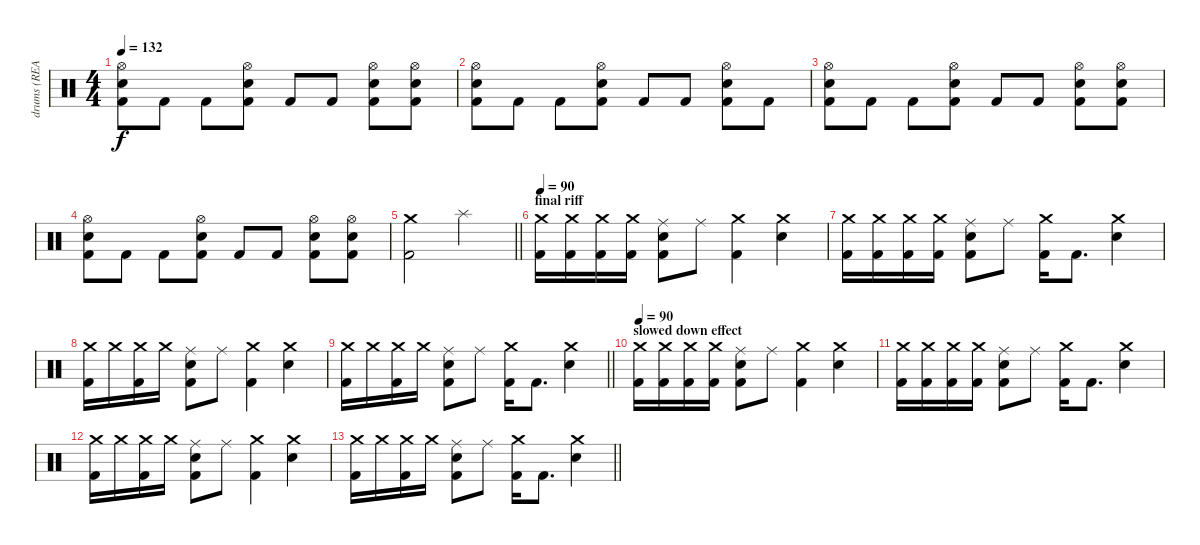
\track ("drums (REAL simple)" "drums (REA") {instrument percussion}
\staff {score}
\articulation defaults
\ts (4 4)
\tempo 132
\clef neutral
\ks c
("Hi-Hat (open)" "Electric Snare (hit)" "Kick (hit) 2").8{dy f} "Kick (hit) 2".8 "Kick (hit) 2".8 ("Hi-Hat (open)" "Electric Snare (hit)" "Kick (hit) 2").8 "Kick (hit) 2".8 "Kick (hit) 2".8 ("Hi-Hat (open)" "Electric Snare (hit)" "Kick (hit) 2").8 ("Hi-Hat (open)" "Electric Snare (hit)" "Kick (hit) 2").8 |
("Hi-Hat (open)" "Electric Snare (hit)" "Kick (hit) 2").8 "Kick (hit) 2".8 "Kick (hit) 2".8 ("Hi-Hat (open)" "Electric Snare (hit)" "Kick (hit) 2").8 "Kick (hit) 2".8 "Kick (hit) 2".8 ("Hi-Hat (open)" "Electric Snare (hit)" "Kick (hit) 2").8 "Kick (hit) 2".8 |
("Hi-Hat (open)" "Electric Snare (hit)" "Kick (hit) 2").8 "Kick (hit) 2".8 "Kick (hit) 2".8 ("Hi-Hat (open)" "Electric Snare (hit)" "Kick (hit) 2").8 "Kick (hit) 2".8 "Kick (hit) 2".8 ("Hi-Hat (open)" "Electric Snare (hit)" "Kick (hit) 2").8 ("Hi-Hat (open)" "Electric Snare (hit)" "Kick (hit) 2").8 |
("Hi-Hat (open)" "Electric Snare (hit)" "Kick (hit) 2").8 "Kick (hit) 2".8 "Kick (hit) 2".8 ("Hi-Hat (open)" "Electric Snare (hit)" "Kick (hit) 2").8 "Kick (hit) 2".8 "Kick (hit) 2".8 ("Hi-Hat (open)" "Electric Snare (hit)" "Kick (hit) 2").8 ("Hi-Hat (open)" "Electric Snare (hit)" "Kick (hit) 2").8 |
\barLineRight lightlight
("Crash medium (hit)" "Kick (hit) 2").2 "Splash (hit)".2 |
\section ("" "final riff")
\tempo 90
("Crash medium (hit)" "Kick (hit) 2").16 ("Crash medium (hit)" "Kick (hit) 2").16 ("Crash medium (hit)" "Kick (hit) 2").16 ("Crash medium (hit)" "Kick (hit) 2").16 ("Ride (middle)" "Electric Snare (hit)" "Kick (hit) 2").8 "Ride (middle)".8 ("Crash medium (hit)" "Kick (hit) 2").4 ("Crash medium (hit)" "Electric Snare (hit)").4 |
("Crash medium (hit)" "Kick (hit) 2").16 ("Crash medium (hit)" "Kick (hit) 2").16 ("Crash medium (hit)" "Kick (hit) 2").16 ("Crash medium (hit)" "Kick (hit) 2").16 ("Ride (middle)" "Electric Snare (hit)" "Kick (hit) 2").8 "Ride (middle)".8 ("Crash medium (hit)" "Kick (hit) 2").16 "Kick (hit) 2".8{d} ("Crash medium (hit)" "Electric Snare (hit)").4 |
("Crash medium (hit)" "Kick (hit) 2").16 "Crash medium (hit)".16 ("Crash medium (hit)" "Kick (hit) 2").16 "Crash medium (hit)".16 ("Ride (middle)" "Electric Snare (hit)" "Kick (hit) 2").8 "Ride (middle)".8 ("Crash medium (hit)" "Kick (hit) 2").4 ("Crash medium (hit)" "Electric Snare (hit)").4 |
\barLineRight lightlight
("Crash medium (hit)" "Kick (hit) 2").16 "Crash medium (hit)".16 ("Crash medium (hit)" "Kick (hit) 2").16 "Crash medium (hit)".16 ("Ride (middle)" "Electric Snare (hit)" "Kick (hit) 2").8 "Ride (middle)".8 ("Crash medium (hit)" "Kick (hit) 2").16 "Kick (hit) 2".8{d} ("Crash medium (hit)" "Electric Snare (hit)").4 |
\section ("" "slowed down effect")
\tempo 20
\tempo 90
("Crash medium (hit)" "Kick (hit) 2").16 ("Crash medium (hit)" "Kick (hit) 2").16 ("Crash medium (hit)" "Kick (hit) 2").16 ("Crash medium (hit)" "Kick (hit) 2").16 ("Ride (middle)" "Electric Snare (hit)" "Kick (hit) 2").8 "Ride (middle)".8 ("Crash medium (hit)" "Kick (hit) 2").4 ("Crash medium (hit)" "Electric Snare (hit)").4 |
("Crash medium (hit)" "Kick (hit) 2").16 ("Crash medium (hit)" "Kick (hit) 2").16 ("Crash medium (hit)" "Kick (hit) 2").16 ("Crash medium (hit)" "Kick (hit) 2").16 ("Ride (middle)" "Electric Snare (hit)" "Kick (hit) 2").8 "Ride (middle)".8 ("Crash medium (hit)" "Kick (hit) 2").16 "Kick (hit) 2".8{d} ("Crash medium (hit)" "Electric Snare (hit)").4 |
("Crash medium (hit)" "Kick (hit) 2").16 "Crash medium (hit)".16 ("Crash medium (hit)" "Kick (hit) 2").16 "Crash medium (hit)".16 ("Ride (middle)" "Electric Snare (hit)" "Kick (hit) 2").8 "Ride (middle)".8 ("Crash medium (hit)" "Kick (hit) 2").4 ("Crash medium (hit)" "Electric Snare (hit)").4 |
\barLineRight lightlight
("Crash medium (hit)" "Kick (hit) 2").16 "Crash medium (hit)".16 ("Crash medium (hit)" "Kick (hit) 2").16 "Crash medium (hit)".16 ("Ride (middle)" "Electric Snare (hit)" "Kick (hit) 2").8 "Ride (middle)".8 ("Crash medium (hit)" "Kick (hit) 2").16 "Kick (hit) 2".8{d} ("Crash medium (hit)" "Electric Snare (hit)").4
